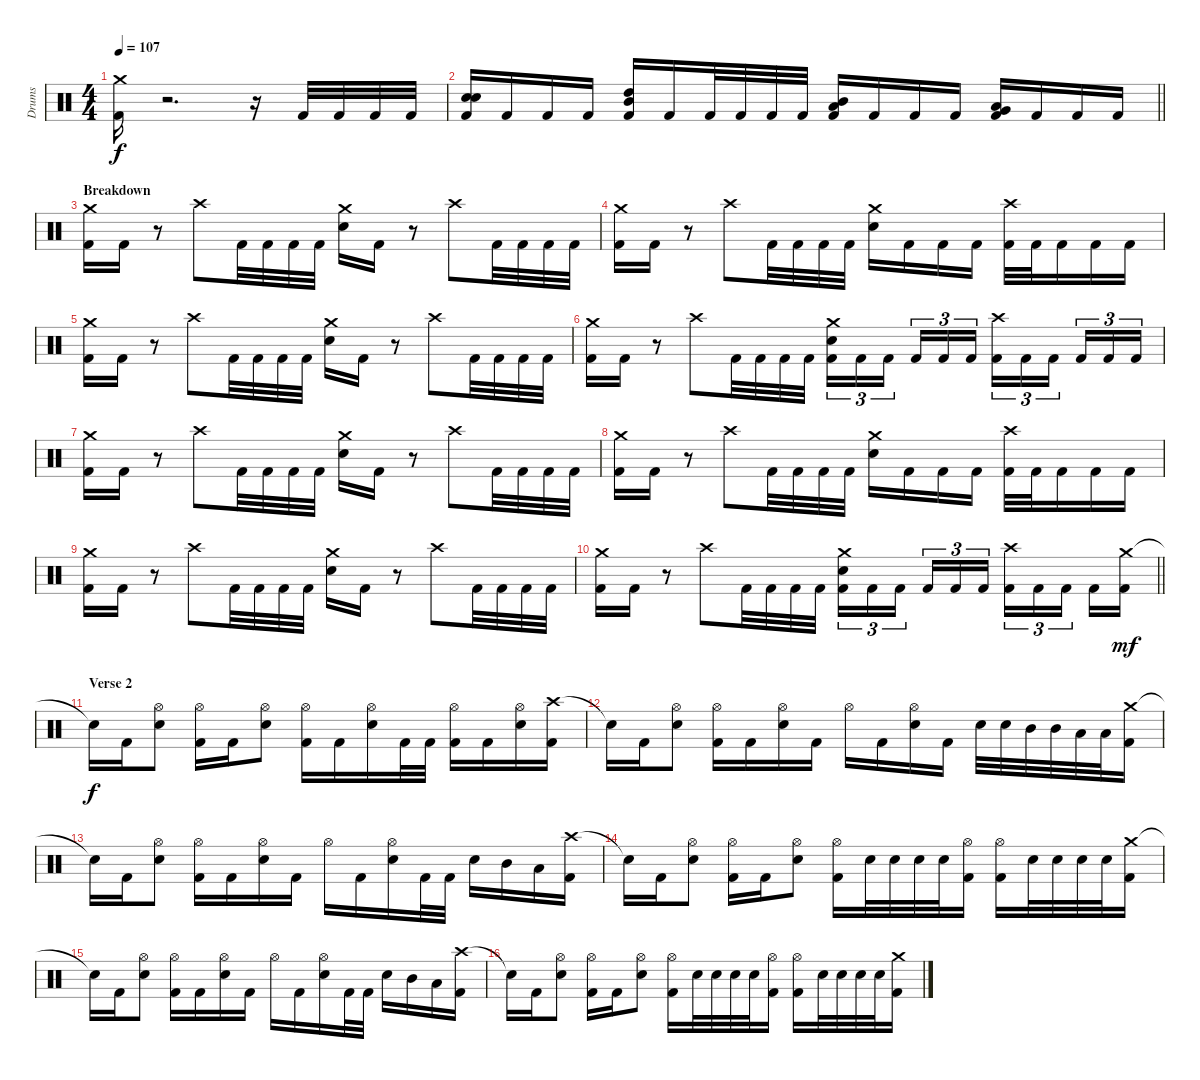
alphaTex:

\track ("Drums" "Drums") {instrument percussion}
\staff {score}
\articulation defaults
\ts (4 4)
\tempo 107
\clef neutral
\ks c
("Crash medium (hit)" "Kick (hit) 2").16{dy f} r.2{d} r.16 "Kick (hit) 2".32 "Kick (hit) 2".32 "Kick (hit) 2".32 "Kick (hit) 2".32 |
\barLineRight lightlight
("Electric Snare (hit)" "Electric Snare (hit)" "Kick (hit) 2").16 "Kick (hit) 2".16 "Kick (hit) 2".16 "Kick (hit) 2".16 ("High Tom (hit)" "Mid Tom (hit)" "Kick (hit) 2").16 "Kick (hit) 2".16 "Kick (hit) 2".32 "Kick (hit) 2".32 "Kick (hit) 2".32 "Kick (hit) 2".32 ("Mid Tom (hit)" "Low Tom (hit)" "Kick (hit) 2").16 "Kick (hit) 2".16 "Kick (hit) 2".16 "Kick (hit) 2".16 ("Low Tom (hit)" "Very Low Tom (hit)" "Kick (hit) 2").16 "Kick (hit) 2".16 "Kick (hit) 2".16 "Kick (hit) 2".16 |
\section ("" "Breakdown")
("Crash medium (hit)" "Kick (hit) 2").16 "Kick (hit) 2".16 r.8 "Crash high (hit)".8 "Kick (hit) 2".32 "Kick (hit) 2".32 "Kick (hit) 2".32 "Kick (hit) 2".32 ("Crash medium (hit)" "Electric Snare (hit)").16 "Kick (hit) 2".16 r.8 "Crash high (hit)".8 "Kick (hit) 2".32 "Kick (hit) 2".32 "Kick (hit) 2".32 "Kick (hit) 2".32 |
("Crash medium (hit)" "Kick (hit) 2").16 "Kick (hit) 2".16 r.8 "Crash high (hit)".8 "Kick (hit) 2".32 "Kick (hit) 2".32 "Kick (hit) 2".32 "Kick (hit) 2".32 ("Crash medium (hit)" "Electric Snare (hit)").16 "Kick (hit) 2".16 "Kick (hit) 2".16 "Kick (hit) 2".16 ("Crash high (hit)" "Kick (hit) 2").32 "Kick (hit) 2".32 "Kick (hit) 2".16 "Kick (hit) 2".16 "Kick (hit) 2".16 |
("Crash medium (hit)" "Kick (hit) 2").16 "Kick (hit) 2".16 r.8 "Crash high (hit)".8 "Kick (hit) 2".32 "Kick (hit) 2".32 "Kick (hit) 2".32 "Kick (hit) 2".32 ("Crash medium (hit)" "Electric Snare (hit)").16 "Kick (hit) 2".16 r.8 "Crash high (hit)".8 "Kick (hit) 2".32 "Kick (hit) 2".32 "Kick (hit) 2".32 "Kick (hit) 2".32 |
("Crash medium (hit)" "Kick (hit) 2").16 "Kick (hit) 2".16 r.8 "Crash high (hit)".8 "Kick (hit) 2".32 "Kick (hit) 2".32 "Kick (hit) 2".32 "Kick (hit) 2".32 ("Crash medium (hit)" "Electric Snare (hit)" "Kick (hit) 2").16{tu (3 2)} "Kick (hit) 2".16{tu (3 2)} "Kick (hit) 2".16{tu (3 2) beam splitsecondary} "Kick (hit) 2".16{tu (3 2)} "Kick (hit) 2".16{tu (3 2)} "Kick (hit) 2".16{tu (3 2)} ("Crash high (hit)" "Kick (hit) 2").16{tu (3 2)} "Kick (hit) 2".16{tu (3 2)} "Kick (hit) 2".16{tu (3 2) beam splitsecondary} "Kick (hit) 2".16{tu (3 2)} "Kick (hit) 2".16{tu (3 2)} "Kick (hit) 2".16{tu (3 2)} |
("Crash medium (hit)" "Kick (hit) 2").16 "Kick (hit) 2".16 r.8 "Crash high (hit)".8 "Kick (hit) 2".32 "Kick (hit) 2".32 "Kick (hit) 2".32 "Kick (hit) 2".32 ("Crash medium (hit)" "Electric Snare (hit)").16 "Kick (hit) 2".16 r.8 "Crash high (hit)".8 "Kick (hit) 2".32 "Kick (hit) 2".32 "Kick (hit) 2".32 "Kick (hit) 2".32 |
("Crash medium (hit)" "Kick (hit) 2").16 "Kick (hit) 2".16 r.8 "Crash high (hit)".8 "Kick (hit) 2".32 "Kick (hit) 2".32 "Kick (hit) 2".32 "Kick (hit) 2".32 ("Crash medium (hit)" "Electric Snare (hit)").16 "Kick (hit) 2".16 "Kick (hit) 2".16 "Kick (hit) 2".16 ("Crash high (hit)" "Kick (hit) 2").32 "Kick (hit) 2".32 "Kick (hit) 2".16 "Kick (hit) 2".16 "Kick (hit) 2".16 |
("Crash medium (hit)" "Kick (hit) 2").16 "Kick (hit) 2".16 r.8 "Crash high (hit)".8 "Kick (hit) 2".32 "Kick (hit) 2".32 "Kick (hit) 2".32 "Kick (hit) 2".32 ("Crash medium (hit)" "Electric Snare (hit)").16 "Kick (hit) 2".16 r.8 "Crash high (hit)".8 "Kick (hit) 2".32 "Kick (hit) 2".32 "Kick (hit) 2".32 "Kick (hit) 2".32 |
\barLineRight lightlight
("Crash medium (hit)" "Kick (hit) 2").16 "Kick (hit) 2".16 r.8 "Crash high (hit)".8 "Kick (hit) 2".32 "Kick (hit) 2".32 "Kick (hit) 2".32 "Kick (hit) 2".32 ("Crash medium (hit)" "Electric Snare (hit)" "Kick (hit) 2").16{tu (3 2)} "Kick (hit) 2".16{tu (3 2)} "Kick (hit) 2".16{tu (3 2) beam splitsecondary} "Kick (hit) 2".16{tu (3 2)} "Kick (hit) 2".16{tu (3 2)} "Kick (hit) 2".16{tu (3 2)} ("Crash high (hit)" "Kick (hit) 2").16{tu (3 2)} "Kick (hit) 2".16{tu (3 2)} "Kick (hit) 2".16{tu (3 2) beam splitsecondary} "Kick (hit) 2".16 ("Crash medium (hit)" "Kick (hit) 2").16{dy mf} |
\section ("" "Verse 2")
"Snare (hit)"{t}.16{dy f} "Kick (hit) 2".16 ("Hi-Hat (open)" "Electric Snare (hit)").8 ("Hi-Hat (open)" "Kick (hit) 2").16 "Kick (hit) 2".16 ("Hi-Hat (open)" "Electric Snare (hit)").8 ("Hi-Hat (open)" "Kick (hit) 2").16 "Kick (hit) 2".16 ("Hi-Hat (open)" "Electric Snare (hit)").16 "Kick (hit) 2".32 "Kick (hit) 2".32 ("Hi-Hat (open)" "Kick (hit) 2").16 "Kick (hit) 2".16 ("Hi-Hat (open)" "Electric Snare (hit)").16 ("Crash high (hit)" "Kick (hit) 2").16 |
"Snare (hit)"{t}.16 "Kick (hit) 2".16 ("Hi-Hat (open)" "Electric Snare (hit)").8 ("Hi-Hat (open)" "Kick (hit) 2").16 "Kick (hit) 2".16 ("Hi-Hat (open)" "Electric Snare (hit)").16 "Kick (hit) 2".16 "Hi-Hat (open)".16 "Kick (hit) 2".16 ("Hi-Hat (open)" "Electric Snare (hit)").16 "Kick (hit) 2".16 "Electric Snare (hit)".32 "Electric Snare (hit)".32 "Mid Tom (hit)".32 "Mid Tom (hit)".32 "Low Tom (hit)".32 "Low Tom (hit)".32 ("Crash medium (hit)" "Kick (hit) 2").16 |
"Snare (hit)"{t}.16 "Kick (hit) 2".16 ("Hi-Hat (open)" "Electric Snare (hit)").8 ("Hi-Hat (open)" "Kick (hit) 2").16 "Kick (hit) 2".16 ("Hi-Hat (open)" "Electric Snare (hit)").16 "Kick (hit) 2".16 "Hi-Hat (open)".16 "Kick (hit) 2".16 ("Hi-Hat (open)" "Electric Snare (hit)").16 "Kick (hit) 2".32 "Kick (hit) 2".32 "Electric Snare (hit)".16 "Mid Tom (hit)".16 "Low Tom (hit)".16 ("Crash high (hit)" "Kick (hit) 2").16 |
"Snare (hit)"{t}.16 "Kick (hit) 2".16 ("Hi-Hat (open)" "Electric Snare (hit)").8 ("Hi-Hat (open)" "Kick (hit) 2").16 "Kick (hit) 2".16 ("Hi-Hat (open)" "Electric Snare (hit)").8 ("Hi-Hat (open)" "Kick (hit) 2").16 "Electric Snare (hit)".32 "Electric Snare (hit)".32 "Electric Snare (hit)".32 "Electric Snare (hit)".32 ("Hi-Hat (open)" "Kick (hit) 2").16 ("Hi-Hat (open)" "Kick (hit) 2").16 "Electric Snare (hit)".32 "Electric Snare (hit)".32 "Electric Snare (hit)".32 "Electric Snare (hit)".32 ("Crash medium (hit)" "Kick (hit) 2").16 |
"Snare (hit)"{t}.16 "Kick (hit) 2".16 ("Hi-Hat (open)" "Electric Snare (hit)").8 ("Hi-Hat (open)" "Kick (hit) 2").16 "Kick (hit) 2".16 ("Hi-Hat (open)" "Electric Snare (hit)").16 "Kick (hit) 2".16 "Hi-Hat (open)".16 "Kick (hit) 2".16 ("Hi-Hat (open)" "Electric Snare (hit)").16 "Kick (hit) 2".32 "Kick (hit) 2".32 "Electric Snare (hit)".16 "Mid Tom (hit)".16 "Low Tom (hit)".16 ("Crash high (hit)" "Kick (hit) 2").16 |
"Snare (hit)"{t}.16 "Kick (hit) 2".16 ("Hi-Hat (open)" "Electric Snare (hit)").8 ("Hi-Hat (open)" "Kick (hit) 2").16 "Kick (hit) 2".16 ("Hi-Hat (open)" "Electric Snare (hit)").8 ("Hi-Hat (open)" "Kick (hit) 2").16 "Electric Snare (hit)".32 "Electric Snare (hit)".32 "Electric Snare (hit)".32 "Electric Snare (hit)".32 ("Hi-Hat (open)" "Kick (hit) 2").16 ("Hi-Hat (open)" "Kick (hit) 2").16 "Electric Snare (hit)".32 "Electric Snare (hit)".32 "Electric Snare (hit)".32 "Electric Snare (hit)".32 ("Crash medium (hit)" "Kick (hit) 2").16
